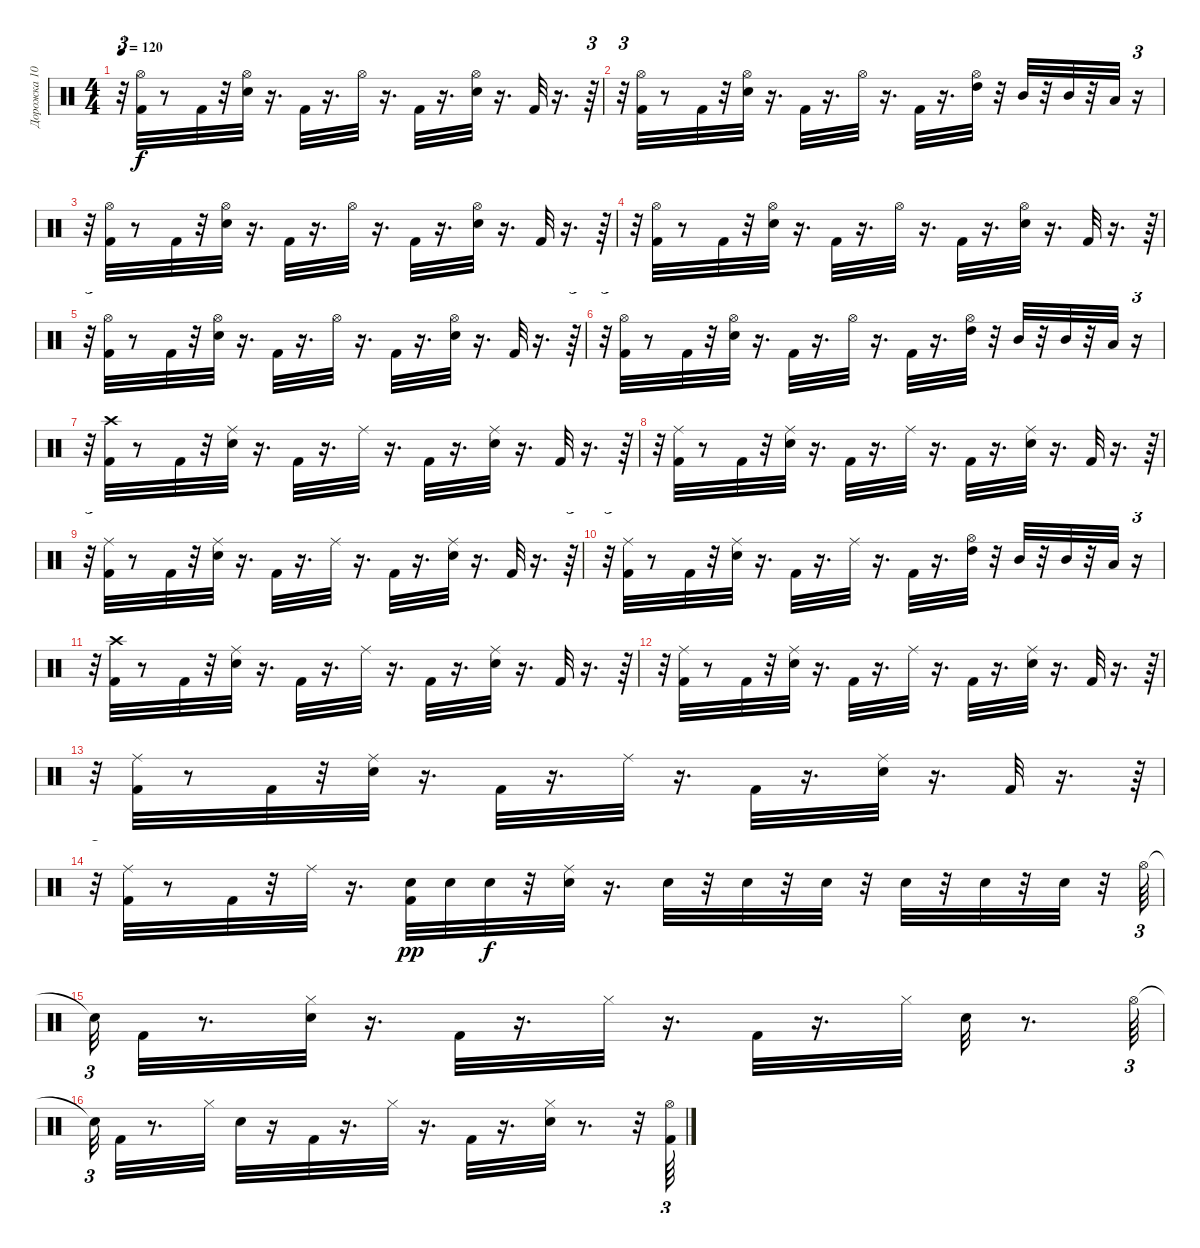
\track ("Дорожка 10" "Дорожка 10") {instrument percussion}
\staff {score}
\articulation defaults
\ts (4 4)
\tempo 120
\clef neutral
\ks c
r.32{tu (3 2) dy f} ("Hi-Hat (open)" "Kick (hit) 2").32 r.8 "Kick (hit) 2".32 r.32 ("Hi-Hat (open)" "Electric Snare (hit)").32 r.16{d} "Kick (hit) 2".32 r.16{d} "Hi-Hat (open)".32 r.16{d} "Kick (hit) 2".32 r.16{d} ("Hi-Hat (open)" "Electric Snare (hit)").32 r.16{d} "Kick (hit) 2".32 r.16{d} r.64{tu (3 2)} |
r.32{tu (3 2)} ("Hi-Hat (open)" "Kick (hit) 2").32 r.8 "Kick (hit) 2".32 r.32 ("Hi-Hat (open)" "Electric Snare (hit)").32 r.16{d} "Kick (hit) 2".32 r.16{d} "Hi-Hat (open)".32 r.16{d} "Kick (hit) 2".32 r.16{d} ("High Tom (hit)" "Hi-Hat (open)").32 r.32 "Mid Tom (hit)".32 r.32 "Mid Tom (hit)".32 r.32 "Low Tom (hit)".32 r.16{tu (3 2)} |
r.32{tu (3 2)} ("Hi-Hat (open)" "Kick (hit) 2").32 r.8 "Kick (hit) 2".32 r.32 ("Hi-Hat (open)" "Electric Snare (hit)").32 r.16{d} "Kick (hit) 2".32 r.16{d} "Hi-Hat (open)".32 r.16{d} "Kick (hit) 2".32 r.16{d} ("Hi-Hat (open)" "Electric Snare (hit)").32 r.16{d} "Kick (hit) 2".32 r.16{d} r.64{tu (3 2)} |
r.32{tu (3 2)} ("Hi-Hat (open)" "Kick (hit) 2").32 r.8 "Kick (hit) 2".32 r.32 ("Hi-Hat (open)" "Electric Snare (hit)").32 r.16{d} "Kick (hit) 2".32 r.16{d} "Hi-Hat (open)".32 r.16{d} "Kick (hit) 2".32 r.16{d} ("Hi-Hat (open)" "Electric Snare (hit)").32 r.16{d} "Kick (hit) 2".32 r.16{d} r.64{tu (3 2)} |
r.32{tu (3 2)} ("Hi-Hat (open)" "Kick (hit) 2").32 r.8 "Kick (hit) 2".32 r.32 ("Hi-Hat (open)" "Electric Snare (hit)").32 r.16{d} "Kick (hit) 2".32 r.16{d} "Hi-Hat (open)".32 r.16{d} "Kick (hit) 2".32 r.16{d} ("Hi-Hat (open)" "Electric Snare (hit)").32 r.16{d} "Kick (hit) 2".32 r.16{d} r.64{tu (3 2)} |
r.32{tu (3 2)} ("Hi-Hat (open)" "Kick (hit) 2").32 r.8 "Kick (hit) 2".32 r.32 ("Hi-Hat (open)" "Electric Snare (hit)").32 r.16{d} "Kick (hit) 2".32 r.16{d} "Hi-Hat (open)".32 r.16{d} "Kick (hit) 2".32 r.16{d} ("High Tom (hit)" "Hi-Hat (open)").32 r.32 "Mid Tom (hit)".32 r.32 "Mid Tom (hit)".32 r.32 "Low Tom (hit)".32 r.16{tu (3 2)} |
r.32{tu (3 2)} ("Crash high (hit)" "Kick (hit) 2").32 r.8 "Kick (hit) 2".32 r.32 ("Ride (middle)" "Electric Snare (hit)").32 r.16{d} "Kick (hit) 2".32 r.16{d} "Ride (middle)".32 r.16{d} "Kick (hit) 2".32 r.16{d} ("Ride (middle)" "Electric Snare (hit)").32 r.16{d} "Kick (hit) 2".32 r.16{d} r.64{tu (3 2)} |
r.32{tu (3 2)} ("Ride (middle)" "Kick (hit) 2").32 r.8 "Kick (hit) 2".32 r.32 ("Ride (middle)" "Electric Snare (hit)").32 r.16{d} "Kick (hit) 2".32 r.16{d} "Ride (middle)".32 r.16{d} "Kick (hit) 2".32 r.16{d} ("Ride (middle)" "Electric Snare (hit)").32 r.16{d} "Kick (hit) 2".32 r.16{d} r.64{tu (3 2)} |
r.32{tu (3 2)} ("Ride (middle)" "Kick (hit) 2").32 r.8 "Kick (hit) 2".32 r.32 ("Electric Snare (hit)" "Ride (middle)").32 r.16{d} "Kick (hit) 2".32 r.16{d} "Ride (middle)".32 r.16{d} "Kick (hit) 2".32 r.16{d} ("Ride (middle)" "Electric Snare (hit)").32 r.16{d} "Kick (hit) 2".32 r.16{d} r.64{tu (3 2)} |
r.32{tu (3 2)} ("Ride (middle)" "Kick (hit) 2").32 r.8 "Kick (hit) 2".32 r.32 ("Ride (middle)" "Electric Snare (hit)").32 r.16{d} "Kick (hit) 2".32 r.16{d} "Ride (middle)".32 r.16{d} "Kick (hit) 2".32 r.16{d} ("High Tom (hit)" "Hi-Hat (open)").32 r.32 "Mid Tom (hit)".32 r.32 "Mid Tom (hit)".32 r.32 "Low Tom (hit)".32 r.16{tu (3 2)} |
r.32{tu (3 2)} ("Crash high (hit)" "Kick (hit) 2").32 r.8 "Kick (hit) 2".32 r.32 ("Ride (middle)" "Electric Snare (hit)").32 r.16{d} "Kick (hit) 2".32 r.16{d} "Ride (middle)".32 r.16{d} "Kick (hit) 2".32 r.16{d} ("Ride (middle)" "Electric Snare (hit)").32 r.16{d} "Kick (hit) 2".32 r.16{d} r.64{tu (3 2)} |
r.32{tu (3 2)} ("Ride (middle)" "Kick (hit) 2").32 r.8 "Kick (hit) 2".32 r.32 ("Ride (middle)" "Electric Snare (hit)").32 r.16{d} "Kick (hit) 2".32 r.16{d} "Ride (middle)".32 r.16{d} "Kick (hit) 2".32 r.16{d} ("Ride (middle)" "Electric Snare (hit)").32 r.16{d} "Kick (hit) 2".32 r.16{d} r.64{tu (3 2)} |
r.32{tu (3 2)} ("Ride (middle)" "Kick (hit) 2").32 r.8 "Kick (hit) 2".32 r.32 ("Electric Snare (hit)" "Ride (middle)").32 r.16{d} "Kick (hit) 2".32 r.16{d} "Ride (middle)".32 r.16{d} "Kick (hit) 2".32 r.16{d} ("Ride (middle)" "Electric Snare (hit)").32 r.16{d} "Kick (hit) 2".32 r.16{d} r.64{tu (3 2)} |
r.32{tu (3 2)} ("Ride (middle)" "Kick (hit) 2").32 r.8 "Kick (hit) 2".32 r.32 "Ride (middle)".32 r.16{d} ("Electric Snare (hit)" "Kick (hit) 2").32{dy pp} "Electric Snare (hit)".32 "Electric Snare (hit)".32{dy f} r.32 ("Ride (middle)" "Electric Snare (hit)").32 r.16{d} "Electric Snare (hit)".32 r.32 "Electric Snare (hit)".32 r.32 "Electric Snare (hit)".32 r.32 "Electric Snare (hit)".32 r.32 "Electric Snare (hit)".32 r.32 "Electric Snare (hit)".32 r.32 "Hi-Hat (open)".64{tu (3 2)} |
"Snare (hit)"{t}.32{tu (3 2)} "Kick (hit) 2".32 r.8{d} ("Hi-Hat (closed)" "Snare (hit) 2").32 r.16{d} "Kick (hit) 2".32 r.16{d} "Hi-Hat (closed)".32 r.16{d} "Kick (hit) 2".32 r.16{d} "Hi-Hat (closed)".32 "Snare (hit) 2".32 r.8{d} "Hi-Hat (open)".64{tu (3 2)} |
"Snare (hit)"{t}.32{tu (3 2)} "Kick (hit) 2".32 r.8{d} "Hi-Hat (closed)".32 "Snare (hit) 2".32 r.16 "Kick (hit) 2".32 r.16{d} "Hi-Hat (closed)".32 r.16{d} "Kick (hit) 2".32 r.16{d} ("Hi-Hat (closed)" "Snare (hit) 2").32 r.8{d} r.32 ("Kick (hit) 2" "Hi-Hat (open)").64{tu (3 2)}
